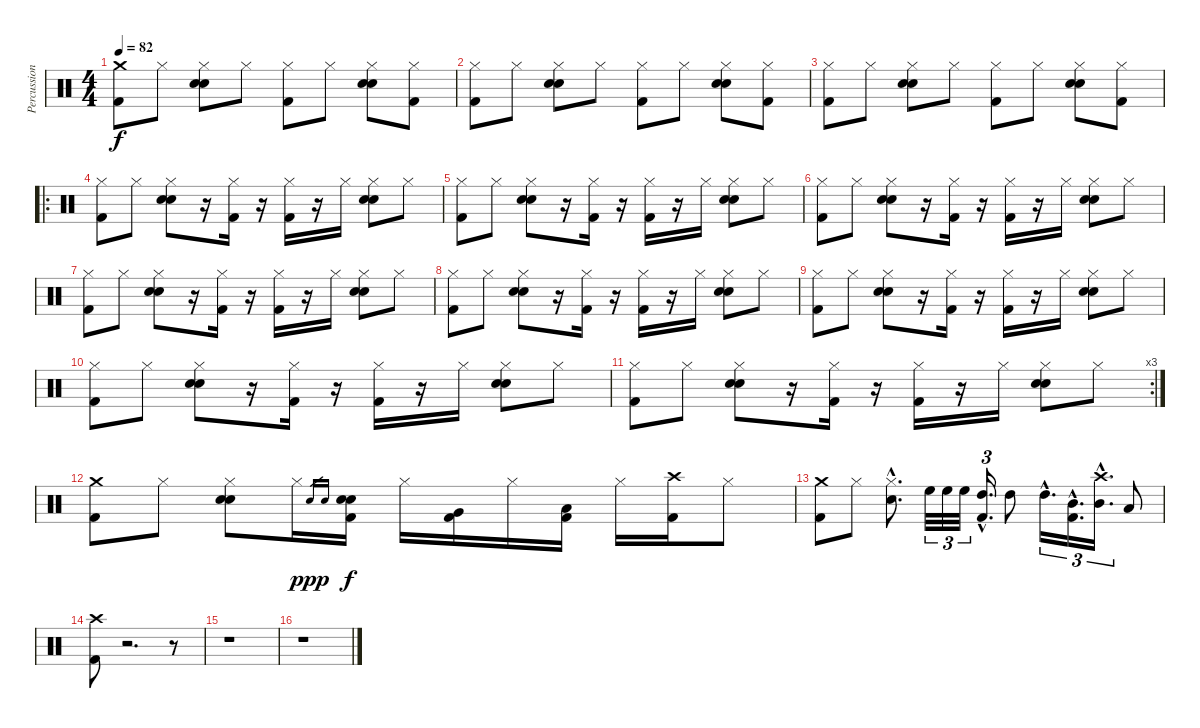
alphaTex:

\track ("Percussion" "Percussion") {instrument percussion}
\staff {score}
\articulation defaults
\ts (4 4)
\tempo 82
\clef neutral
\ks c
("Crash medium (hit)" "Kick (hit) 2").8{dy f} "Hi-Hat (closed)".8 ("Hi-Hat (closed)" "Snare (hit) 2" "Electric Snare (hit)").8 "Hi-Hat (closed)".8 ("Hi-Hat (closed)" "Kick (hit) 2").8 "Hi-Hat (closed)".8 ("Hi-Hat (closed)" "Snare (hit) 2" "Electric Snare (hit)").8 ("Hi-Hat (closed)" "Kick (hit) 2").8 |
("Hi-Hat (closed)" "Kick (hit) 2").8 "Hi-Hat (closed)".8 ("Hi-Hat (closed)" "Snare (hit) 2" "Electric Snare (hit)").8 "Hi-Hat (closed)".8 ("Hi-Hat (closed)" "Kick (hit) 2").8 "Hi-Hat (closed)".8 ("Hi-Hat (closed)" "Snare (hit) 2" "Electric Snare (hit)").8 ("Hi-Hat (closed)" "Kick (hit) 2").8 |
("Hi-Hat (closed)" "Kick (hit) 2").8 "Hi-Hat (closed)".8 ("Hi-Hat (closed)" "Snare (hit) 2" "Electric Snare (hit)").8 "Hi-Hat (closed)".8 ("Hi-Hat (closed)" "Kick (hit) 2").8 "Hi-Hat (closed)".8 ("Hi-Hat (closed)" "Snare (hit) 2" "Electric Snare (hit)").8 ("Hi-Hat (closed)" "Kick (hit) 2").8 |
\ro
("Hi-Hat (closed)" "Kick (hit) 2").8 "Hi-Hat (closed)".8 ("Hi-Hat (closed)" "Snare (hit) 2" "Electric Snare (hit)").8 r.16 ("Hi-Hat (closed)" "Kick (hit) 2").16 r.16 ("Hi-Hat (closed)" "Kick (hit) 2").16 r.16 "Hi-Hat (closed)".16 ("Hi-Hat (closed)" "Snare (hit) 2" "Electric Snare (hit)").8 "Hi-Hat (closed)".8 |
("Hi-Hat (closed)" "Kick (hit) 2").8 "Hi-Hat (closed)".8 ("Hi-Hat (closed)" "Snare (hit) 2" "Electric Snare (hit)").8 r.16 ("Hi-Hat (closed)" "Kick (hit) 2").16 r.16 ("Hi-Hat (closed)" "Kick (hit) 2").16 r.16 "Hi-Hat (closed)".16 ("Hi-Hat (closed)" "Snare (hit) 2" "Electric Snare (hit)").8 "Hi-Hat (closed)".8 |
("Hi-Hat (closed)" "Kick (hit) 2").8 "Hi-Hat (closed)".8 ("Hi-Hat (closed)" "Snare (hit) 2" "Electric Snare (hit)").8 r.16 ("Hi-Hat (closed)" "Kick (hit) 2").16 r.16 ("Hi-Hat (closed)" "Kick (hit) 2").16 r.16 "Hi-Hat (closed)".16 ("Hi-Hat (closed)" "Snare (hit) 2" "Electric Snare (hit)").8 "Hi-Hat (closed)".8 |
("Hi-Hat (closed)" "Kick (hit) 2").8 "Hi-Hat (closed)".8 ("Hi-Hat (closed)" "Snare (hit) 2" "Electric Snare (hit)").8 r.16 ("Hi-Hat (closed)" "Kick (hit) 2").16 r.16 ("Hi-Hat (closed)" "Kick (hit) 2").16 r.16 "Hi-Hat (closed)".16 ("Hi-Hat (closed)" "Snare (hit) 2" "Electric Snare (hit)").8 "Hi-Hat (closed)".8 |
("Hi-Hat (closed)" "Kick (hit) 2").8 "Hi-Hat (closed)".8 ("Hi-Hat (closed)" "Snare (hit) 2" "Electric Snare (hit)").8 r.16 ("Hi-Hat (closed)" "Kick (hit) 2").16 r.16 ("Hi-Hat (closed)" "Kick (hit) 2").16 r.16 "Hi-Hat (closed)".16 ("Hi-Hat (closed)" "Snare (hit) 2" "Electric Snare (hit)").8 "Hi-Hat (closed)".8 |
("Hi-Hat (closed)" "Kick (hit) 2").8 "Hi-Hat (closed)".8 ("Hi-Hat (closed)" "Snare (hit) 2" "Electric Snare (hit)").8 r.16 ("Hi-Hat (closed)" "Kick (hit) 2").16 r.16 ("Hi-Hat (closed)" "Kick (hit) 2").16 r.16 "Hi-Hat (closed)".16 ("Hi-Hat (closed)" "Snare (hit) 2" "Electric Snare (hit)").8 "Hi-Hat (closed)".8 |
("Hi-Hat (closed)" "Kick (hit) 2").8 "Hi-Hat (closed)".8 ("Hi-Hat (closed)" "Snare (hit) 2" "Electric Snare (hit)").8 r.16 ("Hi-Hat (closed)" "Kick (hit) 2").16 r.16 ("Hi-Hat (closed)" "Kick (hit) 2").16 r.16 "Hi-Hat (closed)".16 ("Hi-Hat (closed)" "Snare (hit) 2" "Electric Snare (hit)").8 "Hi-Hat (closed)".8 |
\rc 3
("Hi-Hat (closed)" "Kick (hit) 2").8 "Hi-Hat (closed)".8 ("Hi-Hat (closed)" "Snare (hit) 2" "Electric Snare (hit)").8 r.16 ("Hi-Hat (closed)" "Kick (hit) 2").16 r.16 ("Hi-Hat (closed)" "Kick (hit) 2").16 r.16 "Hi-Hat (closed)".16 ("Hi-Hat (closed)" "Snare (hit) 2" "Electric Snare (hit)").8 "Hi-Hat (closed)".8 |
("Crash medium (hit)" "Kick (hit) 2").8 "Hi-Hat (closed)".8 ("Hi-Hat (closed)" "Snare (hit) 2" "Electric Snare (hit)").8 "Hi-Hat (closed)".16 "Snare (hit) 2".16{gr dy ppp} "Electric Snare (hit)".16{gr} ("Snare (hit) 2" "Electric Snare (hit)" "Kick (hit) 2").16{dy f} "Hi-Hat (closed)".16 ("Very Low Tom (hit)" "Kick (hit) 2").16 "Hi-Hat (closed)".16 ("Low Floor Tom (hit)" "Kick (hit) 2").16 "Hi-Hat (closed)".16 ("Crash high (hit)" "Kick (hit) 2").16 "Hi-Hat (closed)".8 |
("Crash medium (hit)" "Kick (hit) 2").8 "Hi-Hat (closed)".8 ("Hi-Hat (closed)"{hac} "Electric Snare (hit)"{hac}).8{d} "High Floor Tom (hit)".32{tu (3 2)} "High Floor Tom (hit)".32{tu (3 2)} "High Floor Tom (hit)".32{tu (3 2)} ("High Tom (hit)"{hac} "Kick (hit) 2"{hac}).16{d tu (3 2)} "High Tom (hit)".8 "High Tom (hit)"{hac}.16{d tu (3 2)} ("Mid Tom (hit)"{hac} "Kick (hit) 2"{hac}).16{d tu (3 2)} ("Crash high (hit)"{hac} "Mid Tom (hit)"{hac}).16{d tu (3 2)} "Low Floor Tom (hit)".8 |
("Crash high (hit)" "Kick (hit) 2").8 r.2{d} r.8 |
r.1 |
r.1
